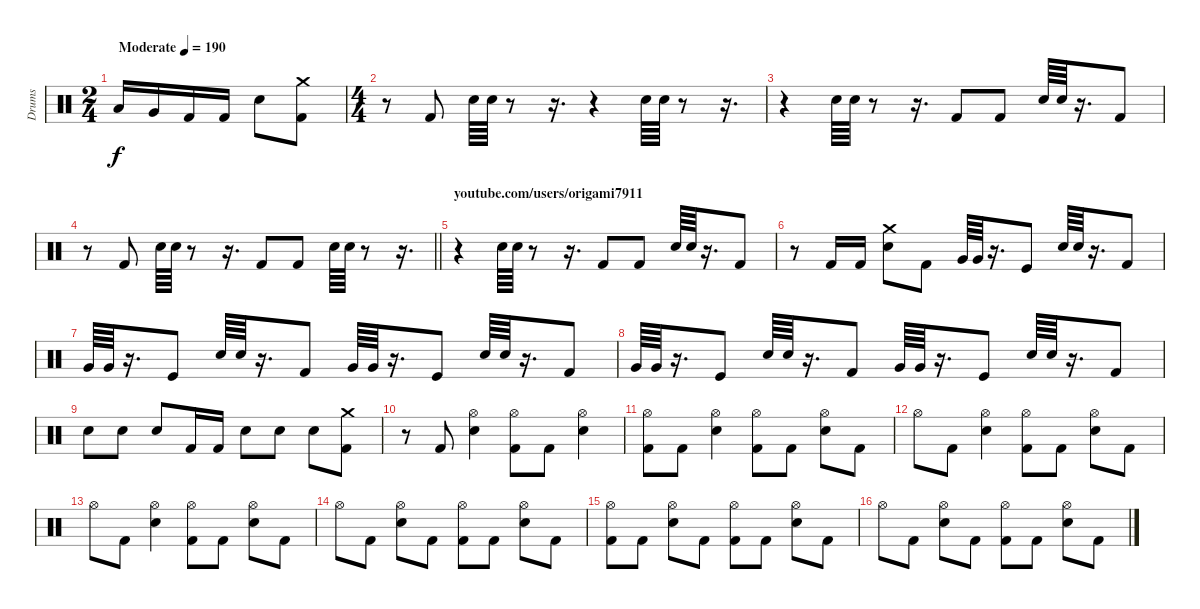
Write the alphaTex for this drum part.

\track ("Drums" "Drums") {instrument percussion}
\staff {score}
\articulation defaults
\ts (2 4)
\tempo (190 "Moderate")
\clef neutral
\ks c "Low Tom (hit)".16{dy f} "Very Low Tom (hit)".16 "Kick (hit) 2".16 "Kick (hit) 2".16 "Electric Snare (hit)".8
("Crash medium (hit)" "Kick (hit) 2").8 |
\ts (4 4)
r.8 "Kick (hit) 2".8 "Electric Snare (hit)".64 "Electric Snare (hit)".64 r.8 r.16{d} r.4 "Electric Snare (hit)".64 "Electric Snare (hit)".64 r.8 r.16{d} |
r.4 "Electric Snare (hit)".64 "Electric Snare (hit)".64 r.8 r.16{d} "Kick (hit) 2".8 "Kick (hit) 2".8 "Electric Snare (hit)".64 "Electric Snare (hit)".64 r.16{d} "Kick (hit) 2".8 |
\barLineRight lightlight
r.8 "Kick (hit) 2".8 "Electric Snare (hit)".64 "Electric Snare (hit)".64 r.8 r.16{d} "Kick (hit) 2".8 "Kick (hit) 2".8 "Electric Snare (hit)".64 "Electric Snare (hit)".64 r.8 r.16{d} |
\section ("" "youtube.com/users/origami7911")
r.4 "Electric Snare (hit)".64 "Electric Snare (hit)".64 r.8 r.16{d} "Kick (hit) 2".8 "Kick (hit) 2".8 "Electric Snare (hit)".64 "Electric Snare (hit)".64 r.16{d} "Kick (hit) 2".8 |
r.8 "Kick (hit) 2".16 "Kick (hit) 2".16 ("Crash medium (hit)" "Electric Snare (hit)").8 "Kick (hit) 2".8 "Very Low Tom (hit)".64 "Very Low Tom (hit)".64 r.16{d} "Kick (hit)".8 "Electric Snare (hit)".64 "Electric Snare (hit)".64 r.16{d} "Kick (hit) 2".8 |
"Very Low Tom (hit)".64 "Very Low Tom (hit)".64 r.16{d} "Kick (hit)".8 "Electric Snare (hit)".64 "Electric Snare (hit)".64 r.16{d} "Kick (hit) 2".8 "Very Low Tom (hit)".64 "Very Low Tom (hit)".64 r.16{d} "Kick (hit)".8 "Electric Snare (hit)".64 "Electric Snare (hit)".64 r.16{d} "Kick (hit) 2".8 |
"Very Low Tom (hit)".64 "Very Low Tom (hit)".64 r.16{d} "Kick (hit)".8 "Electric Snare (hit)".64 "Electric Snare (hit)".64 r.16{d} "Kick (hit) 2".8 "Very Low Tom (hit)".64 "Very Low Tom (hit)".64 r.16{d} "Kick (hit)".8 "Electric Snare (hit)".64 "Electric Snare (hit)".64 r.16{d} "Kick (hit) 2".8 |
"Electric Snare (hit)".8 "Electric Snare (hit)".8 "Electric Snare (hit)".8 "Kick (hit) 2".16 "Kick (hit) 2".16 "Electric Snare (hit)".8 "Electric Snare (hit)".8 "Electric Snare (hit)".8 ("Crash medium (hit)" "Kick (hit) 2").8 |
r.8 "Kick (hit) 2".8 ("Hi-Hat (open)" "Electric Snare (hit)").4 ("Hi-Hat (open)" "Kick (hit) 2").8 "Kick (hit) 2".8 ("Hi-Hat (open)" "Electric Snare (hit)").4 |
("Hi-Hat (open)" "Kick (hit) 2").8 "Kick (hit) 2".8 ("Hi-Hat (open)" "Electric Snare (hit)").4 ("Hi-Hat (open)" "Kick (hit) 2").8 "Kick (hit) 2".8 ("Hi-Hat (open)" "Electric Snare (hit)").8 "Kick (hit) 2".8 |
"Hi-Hat (open)".8 "Kick (hit) 2".8 ("Hi-Hat (open)" "Electric Snare (hit)").4 ("Hi-Hat (open)" "Kick (hit) 2").8 "Kick (hit) 2".8 ("Hi-Hat (open)" "Electric Snare (hit)").8 "Kick (hit) 2".8 |
"Hi-Hat (open)".8 "Kick (hit) 2".8 ("Hi-Hat (open)" "Electric Snare (hit)").4 ("Hi-Hat (open)" "Kick (hit) 2").8 "Kick (hit) 2".8 ("Hi-Hat (open)" "Electric Snare (hit)").8 "Kick (hit) 2".8 |
"Hi-Hat (open)".8 "Kick (hit) 2".8 ("Hi-Hat (open)" "Electric Snare (hit)").8 "Kick (hit) 2".8 ("Hi-Hat (open)" "Kick (hit) 2").8 "Kick (hit) 2".8 ("Hi-Hat (open)" "Electric Snare (hit)").8 "Kick (hit) 2".8 |
("Hi-Hat (open)" "Kick (hit) 2").8 "Kick (hit) 2".8 ("Hi-Hat (open)" "Electric Snare (hit)").8 "Kick (hit) 2".8 ("Hi-Hat (open)" "Kick (hit) 2").8 "Kick (hit) 2".8 ("Hi-Hat (open)" "Electric Snare (hit)").8 "Kick (hit) 2".8 |
"Hi-Hat (open)".8 "Kick (hit) 2".8 ("Hi-Hat (open)" "Electric Snare (hit)").8 "Kick (hit) 2".8 ("Hi-Hat (open)" "Kick (hit) 2").8 "Kick (hit) 2".8 ("Hi-Hat (open)" "Electric Snare (hit)").8 "Kick (hit) 2".8
